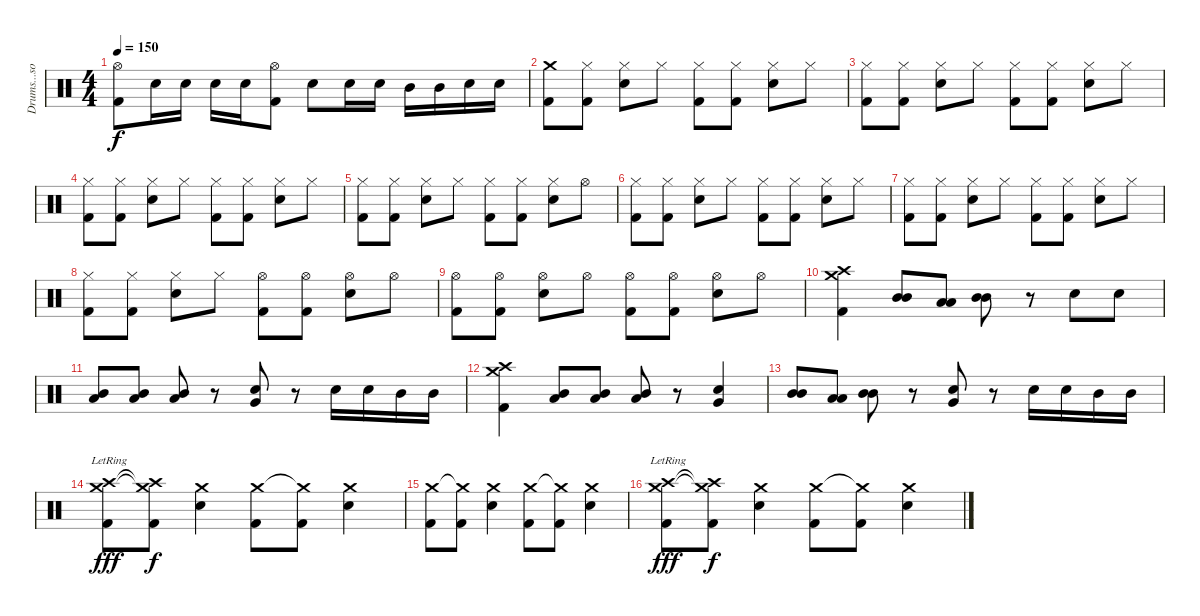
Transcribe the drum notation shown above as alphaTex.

\track ("Drums...song tabbed by ae" "Drums...so") {instrument percussion}
\staff {score}
\articulation defaults
\ts (4 4)
\tempo 150
\clef neutral
\ks c
("Hi-Hat (open)" "Kick (hit) 2").8{dy f} "Electric Snare (hit)".16 "Electric Snare (hit)".16 "Electric Snare (hit)".16 "Electric Snare (hit)".16 ("Hi-Hat (open)" "Kick (hit) 2").8 "Electric Snare (hit)".8 "Electric Snare (hit)".16 "Electric Snare (hit)".16 "Mid Tom (hit)".16 "Mid Tom (hit)".16 "Electric Snare (hit)".16 "Electric Snare (hit)".16 |
("Crash medium (hit)" "Kick (hit) 2").8 ("Hi-Hat (closed)" "Kick (hit) 2").8 ("Hi-Hat (closed)" "Electric Snare (hit)").8 "Hi-Hat (closed)".8 ("Hi-Hat (closed)" "Kick (hit) 2").8 ("Hi-Hat (closed)" "Kick (hit) 2").8 ("Hi-Hat (closed)" "Electric Snare (hit)").8 "Hi-Hat (closed)".8 |
("Hi-Hat (closed)" "Kick (hit) 2").8 ("Hi-Hat (closed)" "Kick (hit) 2").8 ("Hi-Hat (closed)" "Electric Snare (hit)").8 "Hi-Hat (closed)".8 ("Hi-Hat (closed)" "Kick (hit) 2").8 ("Hi-Hat (closed)" "Kick (hit) 2").8 ("Hi-Hat (closed)" "Electric Snare (hit)").8 "Hi-Hat (closed)".8 |
("Hi-Hat (closed)" "Kick (hit) 2").8 ("Hi-Hat (closed)" "Kick (hit) 2").8 ("Hi-Hat (closed)" "Electric Snare (hit)").8 "Hi-Hat (closed)".8 ("Hi-Hat (closed)" "Kick (hit) 2").8 ("Hi-Hat (closed)" "Kick (hit) 2").8 ("Hi-Hat (closed)" "Electric Snare (hit)").8 "Hi-Hat (closed)".8 |
("Hi-Hat (closed)" "Kick (hit) 2").8 ("Hi-Hat (closed)" "Kick (hit) 2").8 ("Hi-Hat (closed)" "Electric Snare (hit)").8 "Hi-Hat (closed)".8 ("Hi-Hat (closed)" "Kick (hit) 2").8 ("Hi-Hat (closed)" "Kick (hit) 2").8 ("Hi-Hat (closed)" "Electric Snare (hit)").8 "Hi-Hat (open)".8 |
("Hi-Hat (closed)" "Kick (hit) 2").8 ("Hi-Hat (closed)" "Kick (hit) 2").8 ("Hi-Hat (closed)" "Electric Snare (hit)").8 "Hi-Hat (closed)".8 ("Hi-Hat (closed)" "Kick (hit) 2").8 ("Hi-Hat (closed)" "Kick (hit) 2").8 ("Hi-Hat (closed)" "Electric Snare (hit)").8 "Hi-Hat (closed)".8 |
("Hi-Hat (closed)" "Kick (hit) 2").8 ("Hi-Hat (closed)" "Kick (hit) 2").8 ("Hi-Hat (closed)" "Electric Snare (hit)").8 "Hi-Hat (closed)".8 ("Hi-Hat (closed)" "Kick (hit) 2").8 ("Hi-Hat (closed)" "Kick (hit) 2").8 ("Hi-Hat (closed)" "Electric Snare (hit)").8 "Hi-Hat (closed)".8 |
("Hi-Hat (closed)" "Kick (hit) 2").8 ("Hi-Hat (closed)" "Kick (hit) 2").8 ("Hi-Hat (closed)" "Electric Snare (hit)").8 "Hi-Hat (closed)".8 ("Hi-Hat (open)" "Kick (hit) 2").8 ("Hi-Hat (open)" "Kick (hit) 2").8 ("Hi-Hat (open)" "Electric Snare (hit)").8 "Hi-Hat (open)".8 |
("Hi-Hat (open)" "Kick (hit) 2").8 ("Hi-Hat (open)" "Kick (hit) 2").8 ("Hi-Hat (open)" "Electric Snare (hit)").8 "Hi-Hat (open)".8 ("Hi-Hat (open)" "Kick (hit) 2").8 ("Hi-Hat (open)" "Kick (hit) 2").8 ("Hi-Hat (open)" "Electric Snare (hit)").8 "Hi-Hat (open)".8 |
("Crash medium (hit)" "Crash high (hit)" "Kick (hit) 2").4 ("Mid Tom (hit)" "Mid Tom (hit)").8 ("Low Tom (hit)" "Low Tom (hit)").8 ("Mid Tom (hit)" "Mid Tom (hit)").8 r.8 "Electric Snare (hit)".8 "Electric Snare (hit)".8 |
("Mid Tom (hit)" "Low Tom (hit)").8 ("Mid Tom (hit)" "Low Tom (hit)").8 ("Mid Tom (hit)" "Low Tom (hit)").8 r.8 ("Electric Snare (hit)" "Very Low Tom (hit)").8 r.8 "Electric Snare (hit)".16 "Electric Snare (hit)".16 "Mid Tom (hit)".16 "Mid Tom (hit)".16 |
("Crash medium (hit)" "Crash high (hit)" "Kick (hit) 2").4 ("Mid Tom (hit)" "Low Tom (hit)").8 ("Mid Tom (hit)" "Low Tom (hit)").8 ("Mid Tom (hit)" "Low Tom (hit)").8 r.8 ("Electric Snare (hit)" "Very Low Tom (hit)").4 |
("Mid Tom (hit)" "Mid Tom (hit)").8 ("Low Tom (hit)" "Low Tom (hit)").8 ("Mid Tom (hit)" "Mid Tom (hit)").8 r.8 ("Electric Snare (hit)" "Very Low Tom (hit)").8 r.8 "Electric Snare (hit)".16 "Electric Snare (hit)".16 "Mid Tom (hit)".16 "Mid Tom (hit)".16 |
("Crash medium (hit)"{lr} "Crash high (hit)" "Kick (hit) 2").8{dy fff} ("Crash medium (hit)"{t} "Crash high (hit)"{t} "Kick (hit) 2").8{dy f} ("Crash medium (hit)" "Electric Snare (hit)").4 ("Crash medium (hit)" "Kick (hit) 2").8 ("Crash medium (hit)"{t} "Kick (hit) 2").8 ("Crash medium (hit)" "Electric Snare (hit)").4 |
("Crash medium (hit)" "Kick (hit) 2").8 ("Crash medium (hit)"{t} "Kick (hit) 2").8 ("Crash medium (hit)" "Electric Snare (hit)").4 ("Crash medium (hit)" "Kick (hit) 2").8 ("Crash medium (hit)"{t} "Kick (hit) 2").8 ("Crash medium (hit)" "Electric Snare (hit)").4 |
("Crash medium (hit)"{lr} "Crash high (hit)" "Kick (hit) 2").8{dy fff} ("Crash medium (hit)"{t} "Crash high (hit)"{t} "Kick (hit) 2").8{dy f} ("Crash medium (hit)" "Electric Snare (hit)").4 ("Crash medium (hit)" "Kick (hit) 2").8 ("Crash medium (hit)"{t} "Kick (hit) 2").8 ("Crash medium (hit)" "Electric Snare (hit)").4
